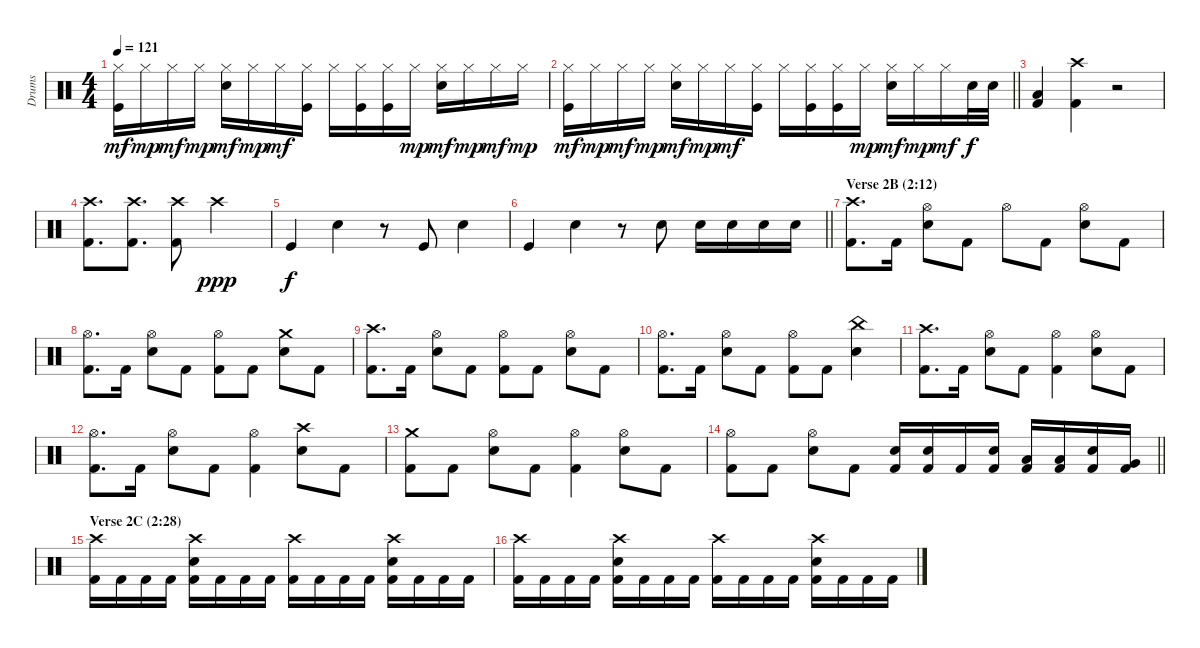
\track ("Drums" "Drums") {instrument percussion}
\staff {score}
\articulation defaults
\ts (4 4)
\tempo 121
\clef neutral
\ks c
("Hi-Hat (closed)" "Kick (hit)").16{dy mf} "Hi-Hat (closed)".16{dy mp} "Hi-Hat (closed)".16{dy mf} "Hi-Hat (closed)".16{dy mp} ("Hi-Hat (closed)" "Electric Snare (hit)").16{dy mf} "Hi-Hat (closed)".16{dy mp} "Hi-Hat (closed)".16{dy mf} ("Hi-Hat (closed)" "Kick (hit)").16 "Hi-Hat (closed)".16 ("Hi-Hat (closed)" "Kick (hit)").16 ("Hi-Hat (closed)" "Kick (hit)").16 "Hi-Hat (closed)".16{dy mp} ("Hi-Hat (closed)" "Electric Snare (hit)").16{dy mf} "Hi-Hat (closed)".16{dy mp} "Hi-Hat (closed)".16{dy mf} "Hi-Hat (closed)".16{dy mp} |
\barLineRight lightlight
("Hi-Hat (closed)" "Kick (hit)").16{dy mf} "Hi-Hat (closed)".16{dy mp} "Hi-Hat (closed)".16{dy mf} "Hi-Hat (closed)".16{dy mp} ("Hi-Hat (closed)" "Electric Snare (hit)").16{dy mf} "Hi-Hat (closed)".16{dy mp} "Hi-Hat (closed)".16{dy mf} ("Hi-Hat (closed)" "Kick (hit)").16 "Hi-Hat (closed)".16 ("Hi-Hat (closed)" "Kick (hit)").16 ("Hi-Hat (closed)" "Kick (hit)").16 "Hi-Hat (closed)".16{dy mp} ("Hi-Hat (closed)" "Electric Snare (hit)").16{dy mf} "Hi-Hat (closed)".16{dy mp} "Hi-Hat (closed)".16{dy mf} "Electric Snare (hit)".32{dy f volume 16} "Electric Snare (hit)".32 |
("Low Floor Tom (hit)" "Kick (hit) 2").4 ("Crash high (hit)" "Kick (hit) 2").4 r.2 |
("Crash high (hit)" "Kick (hit) 2").8{d} ("Crash high (hit)" "Kick (hit) 2").8{d} ("Crash high (hit)" "Kick (hit) 2").8 "Crash high (hit)".2{dy ppp} |
"Kick (hit)".4{dy f volume 8} "Hand Clap (hit)".4 r.8 "Kick (hit)".8 "Hand Clap (hit)".4 |
\barLineRight lightlight "Kick (hit)".4 "Hand Clap (hit)".4
r.8 "Electric Snare (hit)".8{volume 16} "Electric Snare (hit)".16 "Electric Snare (hit)".16 "Electric Snare (hit)".16 "Electric Snare (hit)".16 |
\section ("" "Verse 2B (2:12)")
("Crash high (hit)" "Kick (hit) 2").8{d} "Kick (hit) 2".16 ("Hi-Hat (open)" "Electric Snare (hit)").8 "Kick (hit) 2".8 "Hi-Hat (open)".8 "Kick (hit) 2".8 ("Hi-Hat (open)" "Electric Snare (hit)").8 "Kick (hit) 2".8 |
("Hi-Hat (open)" "Kick (hit) 2").8{d} "Kick (hit) 2".16 ("Hi-Hat (open)" "Electric Snare (hit)").8 "Kick (hit) 2".8 ("Hi-Hat (open)" "Kick (hit) 2").8 "Kick (hit) 2".8 ("Crash medium (hit)" "Electric Snare (hit)").8 "Kick (hit) 2".8 |
("Crash high (hit)" "Kick (hit) 2").8{d} "Kick (hit) 2".16 ("Hi-Hat (open)" "Electric Snare (hit)").8 "Kick (hit) 2".8 ("Hi-Hat (open)" "Kick (hit) 2").8 "Kick (hit) 2".8 ("Hi-Hat (open)" "Electric Snare (hit)").8 "Kick (hit) 2".8 |
("Hi-Hat (open)" "Kick (hit) 2").8{d} "Kick (hit) 2".16 ("Hi-Hat (open)" "Electric Snare (hit)").8 "Kick (hit) 2".8 ("Hi-Hat (open)" "Kick (hit) 2").8 "Kick (hit) 2".8 ("China (hit)" "Electric Snare (hit)").4 |
("Crash high (hit)" "Kick (hit) 2").8{d} "Kick (hit) 2".16 ("Hi-Hat (open)" "Electric Snare (hit)").8 "Kick (hit) 2".8 ("Hi-Hat (open)" "Kick (hit) 2").4 ("Hi-Hat (open)" "Electric Snare (hit)").8 "Kick (hit) 2".8 |
("Hi-Hat (open)" "Kick (hit) 2").8{d} "Kick (hit) 2".16 ("Hi-Hat (open)" "Electric Snare (hit)").8 "Kick (hit) 2".8 ("Hi-Hat (open)" "Kick (hit) 2").4 ("Crash high (hit)" "Electric Snare (hit)").8 "Kick (hit) 2".8 |
("Crash medium (hit)" "Kick (hit) 2").8 "Kick (hit) 2".8 ("Hi-Hat (open)" "Electric Snare (hit)").8 "Kick (hit) 2".8 ("Hi-Hat (open)" "Kick (hit) 2").4 ("Hi-Hat (open)" "Electric Snare (hit)").8 "Kick (hit) 2".8 |
\barLineRight lightlight
("Hi-Hat (open)" "Kick (hit) 2").8 "Kick (hit) 2".8 ("Hi-Hat (open)" "Electric Snare (hit)").8 "Kick (hit) 2".8 ("Electric Snare (hit)" "Kick (hit) 2").16 ("Electric Snare (hit)" "Kick (hit) 2").16 "Kick (hit) 2".16 ("Electric Snare (hit)" "Kick (hit) 2").16 ("Low Tom (hit)" "Kick (hit) 2").16 ("Low Tom (hit)" "Kick (hit) 2").16 ("Electric Snare (hit)" "Kick (hit) 2").16 ("Very Low Tom (hit)" "Kick (hit) 2").16 |
\section ("" "Verse 2C (2:28)")
("Crash high (hit)" "Kick (hit) 2").16 "Kick (hit) 2".16 "Kick (hit) 2".16 "Kick (hit) 2".16 ("Crash high (hit)" "Electric Snare (hit)" "Kick (hit) 2").16 "Kick (hit) 2".16 "Kick (hit) 2".16 "Kick (hit) 2".16 ("Crash high (hit)" "Kick (hit) 2").16 "Kick (hit) 2".16 "Kick (hit) 2".16 "Kick (hit) 2".16 ("Crash high (hit)" "Electric Snare (hit)" "Kick (hit) 2").16 "Kick (hit) 2".16 "Kick (hit) 2".16 "Kick (hit) 2".16 |
("Crash high (hit)" "Kick (hit) 2").16 "Kick (hit) 2".16 "Kick (hit) 2".16 "Kick (hit) 2".16 ("Crash high (hit)" "Electric Snare (hit)" "Kick (hit) 2").16 "Kick (hit) 2".16 "Kick (hit) 2".16 "Kick (hit) 2".16 ("Crash high (hit)" "Kick (hit) 2").16 "Kick (hit) 2".16 "Kick (hit) 2".16 "Kick (hit) 2".16 ("Crash high (hit)" "Electric Snare (hit)" "Kick (hit) 2").16 "Kick (hit) 2".16 "Kick (hit) 2".16 "Kick (hit) 2".16
